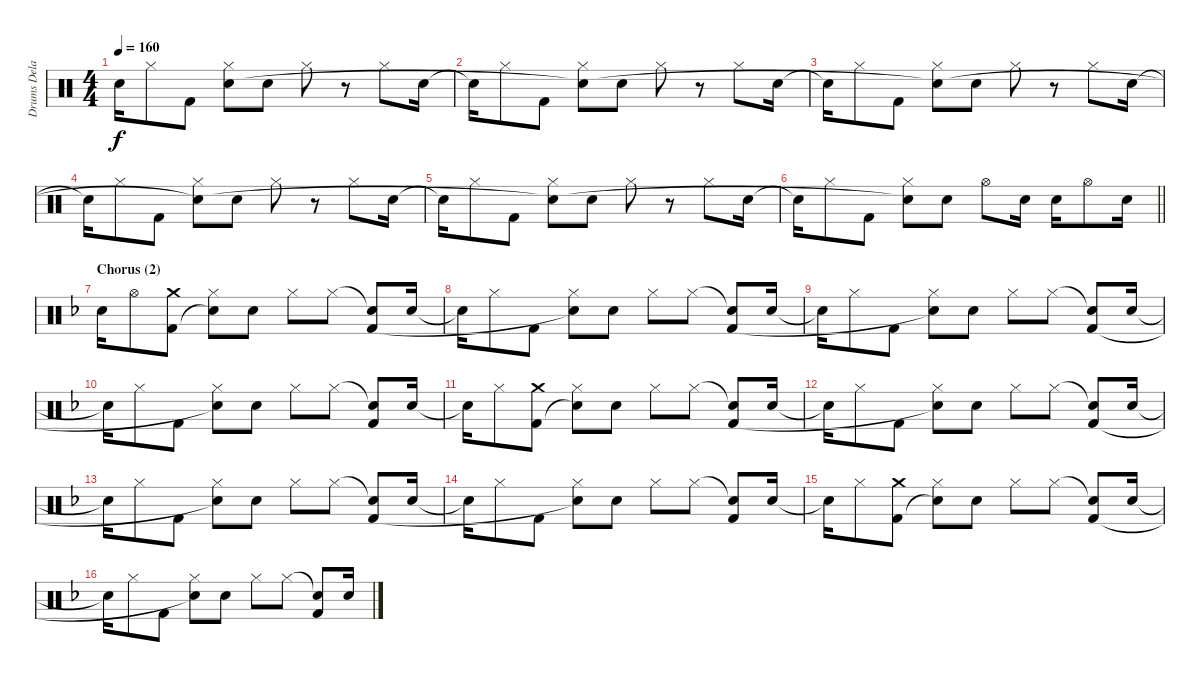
\track ("Drums Delay 2" "Drums Dela") {instrument percussion}
\staff {score}
\articulation defaults
\ts (4 4)
\tempo 160
\clef neutral
\ks c "Snare (hit)"{t}.16{dy f} "Hi-Hat (closed)".8 "Kick (hit) 2".8
("Hi-Hat (closed)" "Snare (hit)"{t}).8 "Electric Snare (hit)".8 "Hi-Hat (closed)".8 r.8 "Hi-Hat (closed)".8 "Electric Snare (hit)".16 |
"Snare (hit)"{t}.16 "Hi-Hat (closed)".8 "Kick (hit) 2".8 ("Hi-Hat (closed)" "Snare (hit)"{t}).8 "Electric Snare (hit)".8 "Hi-Hat (closed)".8 r.8 "Hi-Hat (closed)".8 "Electric Snare (hit)".16 |
"Snare (hit)"{t}.16 "Hi-Hat (closed)".8 "Kick (hit) 2".8 ("Hi-Hat (closed)" "Snare (hit)"{t}).8 "Electric Snare (hit)".8 "Hi-Hat (closed)".8 r.8 "Hi-Hat (closed)".8 "Electric Snare (hit)".16 |
"Snare (hit)"{t}.16 "Hi-Hat (closed)".8 "Kick (hit) 2".8 ("Hi-Hat (closed)" "Snare (hit)"{t}).8 "Electric Snare (hit)".8 "Hi-Hat (closed)".8 r.8 "Hi-Hat (closed)".8 "Electric Snare (hit)".16 |
"Snare (hit)"{t}.16 "Hi-Hat (closed)".8 "Kick (hit) 2".8 ("Hi-Hat (closed)" "Snare (hit)"{t}).8 "Electric Snare (hit)".8 "Hi-Hat (closed)".8 r.8 "Hi-Hat (closed)".8 "Electric Snare (hit)".16 |
\barLineRight lightlight "Snare (hit)"{t}.16 "Hi-Hat (closed)".8 "Kick (hit) 2".8
("Hi-Hat (closed)" "Snare (hit)"{t}).8 "Electric Snare (hit)".8 "Hi-Hat (open)".8 "Electric Snare (hit)".16 "Electric Snare (hit)".16 "Hi-Hat (open)".8 "Electric Snare (hit)".16 |
\section ("" "Chorus (2)")
\ks f "Electric Snare (hit)".16 "Hi-Hat (open)".8
("Crash medium (hit)" "Kick (hit) 2").8 ("Hi-Hat (closed)" "Snare (hit)"{t}).8 "Electric Snare (hit)".8 "Hi-Hat (closed)".8 "Hi-Hat (closed)".8 ("Snare (hit)"{t} "Kick (hit) 2").8 "Electric Snare (hit)".16 |
"Snare (hit)"{t}.16 "Hi-Hat (closed)".8 "Kick (hit) 2".8 ("Hi-Hat (closed)" "Snare (hit)"{t}).8 "Electric Snare (hit)".8 "Hi-Hat (closed)".8 "Hi-Hat (closed)".8 ("Snare (hit)"{t} "Kick (hit) 2").8 "Electric Snare (hit)".16 |
"Snare (hit)"{t}.16 "Hi-Hat (closed)".8 "Kick (hit) 2".8 ("Hi-Hat (closed)" "Snare (hit)"{t}).8 "Electric Snare (hit)".8 "Hi-Hat (closed)".8 "Hi-Hat (closed)".8 ("Snare (hit)"{t} "Kick (hit) 2").8 "Electric Snare (hit)".16 |
"Snare (hit)"{t}.16 "Hi-Hat (closed)".8 "Kick (hit) 2".8 ("Hi-Hat (closed)" "Snare (hit)"{t}).8 "Electric Snare (hit)".8 "Hi-Hat (closed)".8 "Hi-Hat (closed)".8 ("Snare (hit)"{t} "Kick (hit) 2").8 "Electric Snare (hit)".16 |
"Snare (hit)"{t}.16 "Hi-Hat (closed)".8 ("Crash medium (hit)" "Kick (hit) 2").8 ("Hi-Hat (closed)" "Snare (hit)"{t}).8 "Electric Snare (hit)".8 "Hi-Hat (closed)".8 "Hi-Hat (closed)".8 ("Snare (hit)"{t} "Kick (hit) 2").8 "Electric Snare (hit)".16 |
"Snare (hit)"{t}.16 "Hi-Hat (closed)".8 "Kick (hit) 2".8 ("Hi-Hat (closed)" "Snare (hit)"{t}).8 "Electric Snare (hit)".8 "Hi-Hat (closed)".8 "Hi-Hat (closed)".8 ("Snare (hit)"{t} "Kick (hit) 2").8 "Electric Snare (hit)".16 |
"Snare (hit)"{t}.16 "Hi-Hat (closed)".8 "Kick (hit) 2".8 ("Hi-Hat (closed)" "Snare (hit)"{t}).8 "Electric Snare (hit)".8 "Hi-Hat (closed)".8 "Hi-Hat (closed)".8 ("Snare (hit)"{t} "Kick (hit) 2").8 "Electric Snare (hit)".16 |
"Snare (hit)"{t}.16 "Hi-Hat (closed)".8 "Kick (hit) 2".8 ("Hi-Hat (closed)" "Snare (hit)"{t}).8 "Electric Snare (hit)".8 "Hi-Hat (closed)".8 "Hi-Hat (closed)".8 ("Snare (hit)"{t} "Kick (hit) 2").8 "Electric Snare (hit)".16 |
"Snare (hit)"{t}.16 "Hi-Hat (closed)".8 ("Crash medium (hit)" "Kick (hit) 2").8 ("Hi-Hat (closed)" "Snare (hit)"{t}).8 "Electric Snare (hit)".8 "Hi-Hat (closed)".8 "Hi-Hat (closed)".8 ("Snare (hit)"{t} "Kick (hit) 2").8 "Electric Snare (hit)".16 |
"Snare (hit)"{t}.16 "Hi-Hat (closed)".8 "Kick (hit) 2".8 ("Hi-Hat (closed)" "Snare (hit)"{t}).8 "Electric Snare (hit)".8 "Hi-Hat (closed)".8 "Hi-Hat (closed)".8 ("Snare (hit)"{t} "Kick (hit) 2").8 "Electric Snare (hit)".16
